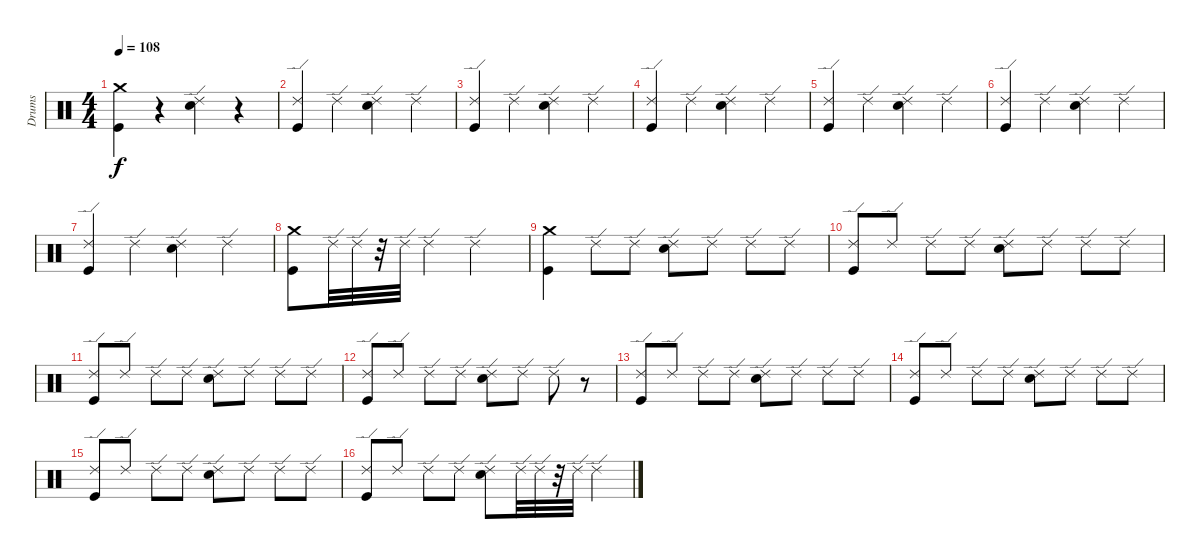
\track ("Drums" "Drums") {instrument percussion}
\staff {score}
\articulation defaults
\ts (4 4)
\tempo 108
\clef neutral
\ks c
("Crash medium (hit)" "Kick (hit)").4{dy f} r.4 ("Ride (edge) 2" "Snare (hit) 2").4 r.4 |
("Ride (edge) 2" "Kick (hit)").4 "Ride (edge) 2".4 ("Ride (edge) 2" "Snare (hit) 2").4 "Ride (edge) 2".4 |
("Ride (edge) 2" "Kick (hit)").4 "Ride (edge) 2".4 ("Ride (edge) 2" "Snare (hit) 2").4 "Ride (edge) 2".4 |
("Ride (edge) 2" "Kick (hit)").4 "Ride (edge) 2".4 ("Ride (edge) 2" "Snare (hit) 2").4 "Ride (edge) 2".4 |
("Ride (edge) 2" "Kick (hit)").4 "Ride (edge) 2".4 ("Ride (edge) 2" "Snare (hit) 2").4 "Ride (edge) 2".4 |
("Ride (edge) 2" "Kick (hit)").4 "Ride (edge) 2".4 ("Ride (edge) 2" "Snare (hit) 2").4 "Ride (edge) 2".4 |
("Ride (edge) 2" "Kick (hit)").4 "Ride (edge) 2".4 ("Ride (edge) 2" "Snare (hit) 2").4 "Ride (edge) 2".4 |
("Crash medium (hit)" "Kick (hit)").8 "Ride (edge) 2".32 "Ride (edge) 2".32 r.32 "Ride (edge) 2".32 "Ride (edge) 2".4 "Ride (edge) 2".2 |
("Crash medium (hit)" "Kick (hit)").4 "Ride (edge) 2".8 "Ride (edge) 2".8 ("Ride (edge) 2" "Snare (hit) 2").8 "Ride (edge) 2".8 "Ride (edge) 2".8 "Ride (edge) 2".8 |
("Ride (edge) 2" "Kick (hit)").8 "Ride (edge) 2".8 "Ride (edge) 2".8 "Ride (edge) 2".8 ("Ride (edge) 2" "Snare (hit) 2").8 "Ride (edge) 2".8 "Ride (edge) 2".8 "Ride (edge) 2".8 |
("Kick (hit)" "Ride (edge) 2").8 "Ride (edge) 2".8 "Ride (edge) 2".8 "Ride (edge) 2".8 ("Snare (hit) 2" "Ride (edge) 2").8 "Ride (edge) 2".8 "Ride (edge) 2".8 "Ride (edge) 2".8 |
("Ride (edge) 2" "Kick (hit)").8 "Ride (edge) 2".8 "Ride (edge) 2".8 "Ride (edge) 2".8 ("Ride (edge) 2" "Snare (hit) 2").8 "Ride (edge) 2".8 "Ride (edge) 2".8 r.8 |
("Kick (hit)" "Ride (edge) 2").8 "Ride (edge) 2".8 "Ride (edge) 2".8 "Ride (edge) 2".8 ("Snare (hit) 2" "Ride (edge) 2").8 "Ride (edge) 2".8 "Ride (edge) 2".8 "Ride (edge) 2".8 |
("Kick (hit)" "Ride (edge) 2").8 "Ride (edge) 2".8 "Ride (edge) 2".8 "Ride (edge) 2".8 ("Snare (hit) 2" "Ride (edge) 2").8 "Ride (edge) 2".8 "Ride (edge) 2".8 "Ride (edge) 2".8 |
("Kick (hit)" "Ride (edge) 2").8 "Ride (edge) 2".8 "Ride (edge) 2".8 "Ride (edge) 2".8 ("Snare (hit) 2" "Ride (edge) 2").8 "Ride (edge) 2".8 "Ride (edge) 2".8 "Ride (edge) 2".8 |
("Ride (edge) 2" "Kick (hit)").8 "Ride (edge) 2".8 "Ride (edge) 2".8 "Ride (edge) 2".8 ("Ride (edge) 2" "Snare (hit) 2").8 "Ride (edge) 2".32 "Ride (edge) 2".32 r.32 "Ride (edge) 2".32 "Ride (edge) 2".4
